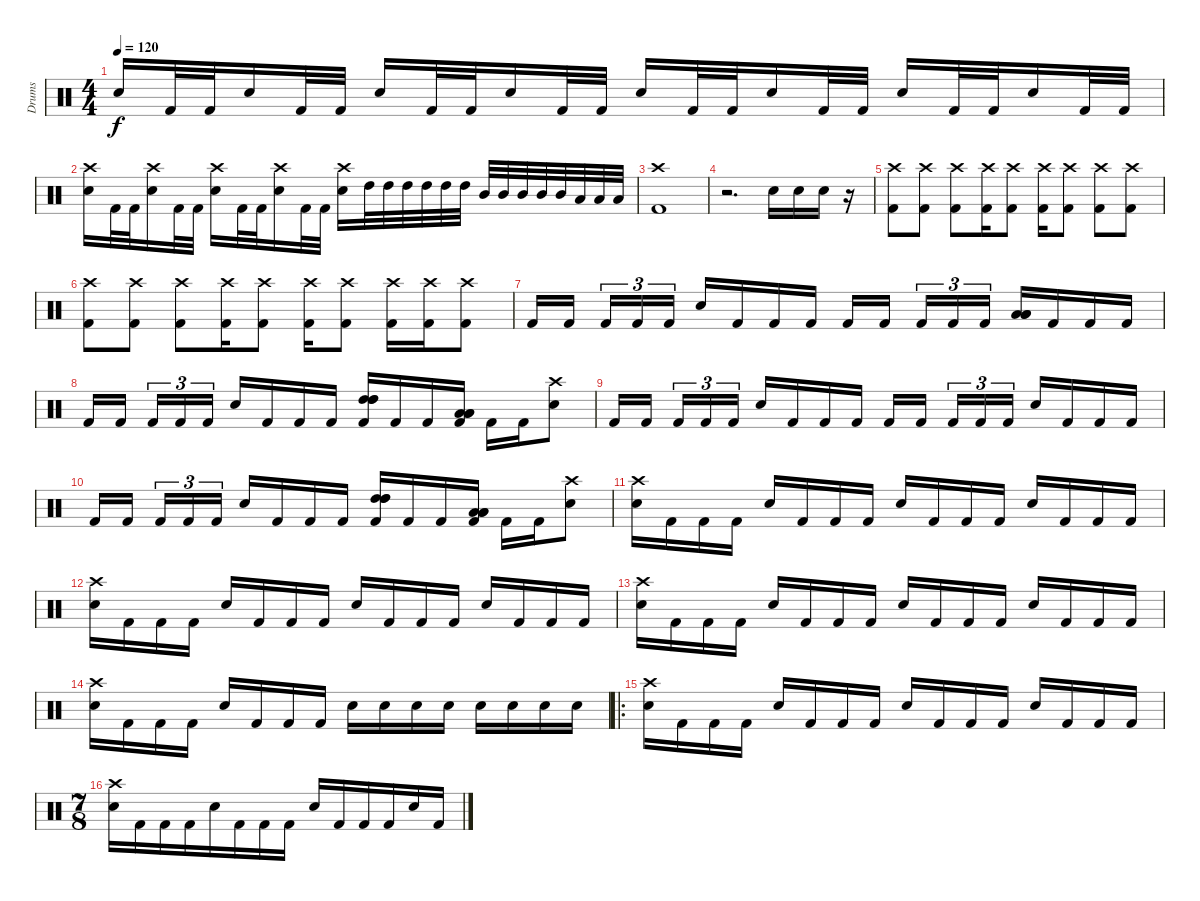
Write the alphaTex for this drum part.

\track ("Drums" "Drums") {instrument percussion}
\staff {score}
\articulation defaults
\ts (4 4)
\tempo 120
\clef neutral
\ks c "Electric Snare (hit)".16{dy f} "Kick (hit) 2".32 "Kick (hit) 2".32 "Electric Snare (hit)".16 "Kick (hit) 2".32 "Kick (hit) 2".32 "Electric Snare (hit)".16 "Kick (hit) 2".32 "Kick (hit) 2".32 "Electric Snare (hit)".16 "Kick (hit) 2".32 "Kick (hit) 2".32 "Electric Snare (hit)".16 "Kick (hit) 2".32 "Kick (hit) 2".32 "Electric Snare (hit)".16 "Kick (hit) 2".32 "Kick (hit) 2".32 "Electric Snare (hit)".16 "Kick (hit) 2".32 "Kick (hit) 2".32 "Electric Snare (hit)".16 "Kick (hit) 2".32 "Kick (hit) 2".32
|
("Crash high (hit)" "Electric Snare (hit)").16 "Kick (hit) 2".32 "Kick (hit) 2".32 ("Crash high (hit)" "Electric Snare (hit)").16 "Kick (hit) 2".32 "Kick (hit) 2".32 ("Crash high (hit)" "Electric Snare (hit)").16 "Kick (hit) 2".32 "Kick (hit) 2".32 ("Crash high (hit)" "Electric Snare (hit)").16 "Kick (hit) 2".32 "Kick (hit) 2".32 ("Crash high (hit)" "Electric Snare (hit)").16 "High Tom (hit)".32 "High Tom (hit)".32 "High Tom (hit)".32 "High Tom (hit)".32 "High Tom (hit)".32 "High Tom (hit)".32 "Mid Tom (hit)".32 "Mid Tom (hit)".32 "Mid Tom (hit)".32 "Mid Tom (hit)".32 "Mid Tom (hit)".32 "Low Tom (hit)".32 "Low Tom (hit)".32 "Low Tom (hit)".32 |
("Crash high (hit)" "Kick (hit) 2").1 |
r.2{d} "Electric Snare (hit)".16 "Electric Snare (hit)".16 "Electric Snare (hit)".16 r.16 |
("Crash high (hit)" "Kick (hit) 2").8 ("Crash high (hit)" "Kick (hit) 2").8 ("Crash high (hit)" "Kick (hit) 2").8 ("Crash high (hit)" "Kick (hit) 2").16 ("Crash high (hit)" "Kick (hit) 2").8 ("Crash high (hit)" "Kick (hit) 2").16 ("Crash high (hit)" "Kick (hit) 2").8 ("Crash high (hit)" "Kick (hit) 2").8 ("Crash high (hit)" "Kick (hit) 2").8 |
("Crash high (hit)" "Kick (hit) 2").8 ("Crash high (hit)" "Kick (hit) 2").8 ("Crash high (hit)" "Kick (hit) 2").8 ("Crash high (hit)" "Kick (hit) 2").16 ("Crash high (hit)" "Kick (hit) 2").8 ("Crash high (hit)" "Kick (hit) 2").16 ("Crash high (hit)" "Kick (hit) 2").8 ("Crash high (hit)" "Kick (hit) 2").16 ("Crash high (hit)" "Kick (hit) 2").16 ("Crash high (hit)" "Kick (hit) 2").8 |
"Kick (hit) 2".16 "Kick (hit) 2".16{beam splitsecondary} "Kick (hit) 2".16{tu (3 2)} "Kick (hit) 2".16{tu (3 2)} "Kick (hit) 2".16{tu (3 2)} "Electric Snare (hit)".16 "Kick (hit) 2".16 "Kick (hit) 2".16 "Kick (hit) 2".16 "Kick (hit) 2".16 "Kick (hit) 2".16{beam splitsecondary} "Kick (hit) 2".16{tu (3 2)} "Kick (hit) 2".16{tu (3 2)} "Kick (hit) 2".16{tu (3 2)} ("Low Tom (hit)" "Low Tom (hit)" "Low Tom (hit)").16 "Kick (hit) 2".16 "Kick (hit) 2".16 "Kick (hit) 2".16 |
"Kick (hit) 2".16 "Kick (hit) 2".16{beam splitsecondary} "Kick (hit) 2".16{tu (3 2)} "Kick (hit) 2".16{tu (3 2)} "Kick (hit) 2".16{tu (3 2)} "Electric Snare (hit)".16 "Kick (hit) 2".16 "Kick (hit) 2".16 "Kick (hit) 2".16 ("High Tom (hit)" "High Tom (hit)" "High Tom (hit)" "Kick (hit) 2").16 "Kick (hit) 2".16 "Kick (hit) 2".16 ("Low Tom (hit)" "Low Tom (hit)" "Low Tom (hit)" "Kick (hit) 2").16 "Kick (hit) 2".16 "Kick (hit) 2".16 ("Crash high (hit)" "Electric Snare (hit)").8 |
"Kick (hit) 2".16 "Kick (hit) 2".16{beam splitsecondary} "Kick (hit) 2".16{tu (3 2)} "Kick (hit) 2".16{tu (3 2)} "Kick (hit) 2".16{tu (3 2)} "Electric Snare (hit)".16 "Kick (hit) 2".16 "Kick (hit) 2".16 "Kick (hit) 2".16 "Kick (hit) 2".16 "Kick (hit) 2".16{beam splitsecondary} "Kick (hit) 2".16{tu (3 2)} "Kick (hit) 2".16{tu (3 2)} "Kick (hit) 2".16{tu (3 2)} "Electric Snare (hit)".16 "Kick (hit) 2".16 "Kick (hit) 2".16 "Kick (hit) 2".16 |
"Kick (hit) 2".16 "Kick (hit) 2".16{beam splitsecondary} "Kick (hit) 2".16{tu (3 2)} "Kick (hit) 2".16{tu (3 2)} "Kick (hit) 2".16{tu (3 2)} "Electric Snare (hit)".16 "Kick (hit) 2".16 "Kick (hit) 2".16 "Kick (hit) 2".16 ("High Tom (hit)" "High Tom (hit)" "High Tom (hit)" "Kick (hit) 2").16 "Kick (hit) 2".16 "Kick (hit) 2".16 ("Low Tom (hit)" "Low Tom (hit)" "Low Tom (hit)" "Kick (hit) 2").16 "Kick (hit) 2".16 "Kick (hit) 2".16 ("Crash high (hit)" "Electric Snare (hit)").8 |
("Crash high (hit)" "Electric Snare (hit)").16 "Kick (hit) 2".16 "Kick (hit) 2".16 "Kick (hit) 2".16 "Electric Snare (hit)".16 "Kick (hit) 2".16 "Kick (hit) 2".16 "Kick (hit) 2".16 "Electric Snare (hit)".16 "Kick (hit) 2".16 "Kick (hit) 2".16 "Kick (hit) 2".16 "Electric Snare (hit)".16 "Kick (hit) 2".16 "Kick (hit) 2".16 "Kick (hit) 2".16 |
("Crash high (hit)" "Electric Snare (hit)").16 "Kick (hit) 2".16 "Kick (hit) 2".16 "Kick (hit) 2".16 "Electric Snare (hit)".16 "Kick (hit) 2".16 "Kick (hit) 2".16 "Kick (hit) 2".16 "Electric Snare (hit)".16 "Kick (hit) 2".16 "Kick (hit) 2".16 "Kick (hit) 2".16 "Electric Snare (hit)".16 "Kick (hit) 2".16 "Kick (hit) 2".16 "Kick (hit) 2".16 |
("Crash high (hit)" "Electric Snare (hit)").16 "Kick (hit) 2".16 "Kick (hit) 2".16 "Kick (hit) 2".16 "Electric Snare (hit)".16 "Kick (hit) 2".16 "Kick (hit) 2".16 "Kick (hit) 2".16 "Electric Snare (hit)".16 "Kick (hit) 2".16 "Kick (hit) 2".16 "Kick (hit) 2".16 "Electric Snare (hit)".16 "Kick (hit) 2".16 "Kick (hit) 2".16 "Kick (hit) 2".16 |
("Crash high (hit)" "Electric Snare (hit)").16 "Kick (hit) 2".16 "Kick (hit) 2".16 "Kick (hit) 2".16 "Electric Snare (hit)".16 "Kick (hit) 2".16 "Kick (hit) 2".16 "Kick (hit) 2".16 "Electric Snare (hit)".16 "Electric Snare (hit)".16 "Electric Snare (hit)".16 "Electric Snare (hit)".16 "Electric Snare (hit)".16 "Electric Snare (hit)".16 "Electric Snare (hit)".16 "Electric Snare (hit)".16 |
\ro
("Crash high (hit)" "Electric Snare (hit)").16 "Kick (hit) 2".16 "Kick (hit) 2".16 "Kick (hit) 2".16 "Electric Snare (hit)".16 "Kick (hit) 2".16 "Kick (hit) 2".16 "Kick (hit) 2".16 "Electric Snare (hit)".16 "Kick (hit) 2".16 "Kick (hit) 2".16 "Kick (hit) 2".16 "Electric Snare (hit)".16 "Kick (hit) 2".16 "Kick (hit) 2".16 "Kick (hit) 2".16 |
\ts (7 8)
("Crash high (hit)" "Electric Snare (hit)").16 "Kick (hit) 2".16 "Kick (hit) 2".16 "Kick (hit) 2".16 "Electric Snare (hit)".16 "Kick (hit) 2".16 "Kick (hit) 2".16 "Kick (hit) 2".16 "Electric Snare (hit)".16 "Kick (hit) 2".16 "Kick (hit) 2".16 "Kick (hit) 2".16 "Electric Snare (hit)".16 "Kick (hit) 2".16
